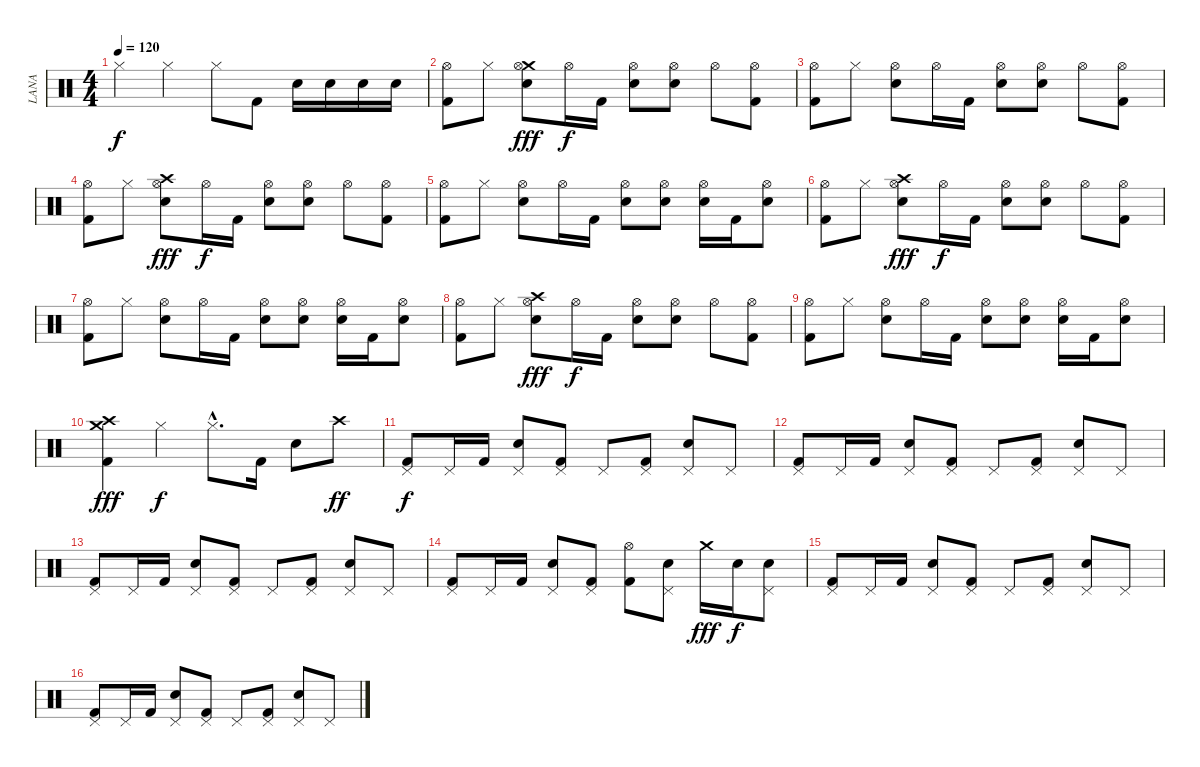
\track ("LANA" "LANA") {instrument percussion}
\staff {score}
\articulation defaults
\ts (4 4)
\tempo 120
\clef neutral
\ks c "Hi-Hat (closed)".4{dy f} "Hi-Hat (closed)".4 "Hi-Hat (closed)".8 "Kick (hit) 2".8 "Electric Snare (hit)".16 "Electric Snare (hit)".16 "Electric Snare (hit)".16 "Electric Snare (hit)".16
|
("Hi-Hat (open)" "Kick (hit) 2").8 "Hi-Hat (closed)".8 ("Crash medium (hit)" "Hi-Hat (open)" "Electric Snare (hit)").8{dy fff} "Hi-Hat (open)".16{dy f} "Kick (hit) 2".16 ("Hi-Hat (open)" "Electric Snare (hit)").8 ("Hi-Hat (open)" "Electric Snare (hit)").8 "Hi-Hat (open)".8 ("Hi-Hat (open)" "Kick (hit) 2").8 |
("Hi-Hat (open)" "Kick (hit) 2").8 "Hi-Hat (closed)".8 ("Hi-Hat (open)" "Electric Snare (hit)").8 "Hi-Hat (open)".16 "Kick (hit) 2".16 ("Hi-Hat (open)" "Electric Snare (hit)").8 ("Hi-Hat (open)" "Electric Snare (hit)").8 "Hi-Hat (open)".8 ("Hi-Hat (open)" "Kick (hit) 2").8 |
("Hi-Hat (open)" "Kick (hit) 2").8 "Hi-Hat (closed)".8 ("Crash high (hit)" "Hi-Hat (open)" "Electric Snare (hit)").8{dy fff} "Hi-Hat (open)".16{dy f} "Kick (hit) 2".16 ("Hi-Hat (open)" "Electric Snare (hit)").8 ("Hi-Hat (open)" "Electric Snare (hit)").8 "Hi-Hat (open)".8 ("Hi-Hat (open)" "Kick (hit) 2").8 |
("Hi-Hat (open)" "Kick (hit) 2").8 "Hi-Hat (closed)".8 ("Hi-Hat (open)" "Electric Snare (hit)").8 "Hi-Hat (open)".16 "Kick (hit) 2".16 ("Hi-Hat (open)" "Electric Snare (hit)").8 ("Hi-Hat (open)" "Electric Snare (hit)").8 ("Hi-Hat (open)" "Electric Snare (hit)").16 "Kick (hit) 2".16 ("Hi-Hat (open)" "Electric Snare (hit)").8 |
("Hi-Hat (open)" "Kick (hit) 2").8 "Hi-Hat (closed)".8 ("Crash high (hit)" "Hi-Hat (open)" "Electric Snare (hit)").8{dy fff} "Hi-Hat (open)".16{dy f} "Kick (hit) 2".16 ("Hi-Hat (open)" "Electric Snare (hit)").8 ("Hi-Hat (open)" "Electric Snare (hit)").8 "Hi-Hat (open)".8 ("Hi-Hat (open)" "Kick (hit) 2").8 |
("Hi-Hat (open)" "Kick (hit) 2").8 "Hi-Hat (closed)".8 ("Hi-Hat (open)" "Electric Snare (hit)").8 "Hi-Hat (open)".16 "Kick (hit) 2".16 ("Hi-Hat (open)" "Electric Snare (hit)").8 ("Hi-Hat (open)" "Electric Snare (hit)").8 ("Hi-Hat (open)" "Electric Snare (hit)").16 "Kick (hit) 2".16 ("Hi-Hat (open)" "Electric Snare (hit)").8 |
("Hi-Hat (open)" "Kick (hit) 2").8 "Hi-Hat (closed)".8 ("Crash high (hit)" "Hi-Hat (open)" "Electric Snare (hit)").8{dy fff} "Hi-Hat (open)".16{dy f} "Kick (hit) 2".16 ("Hi-Hat (open)" "Electric Snare (hit)").8 ("Hi-Hat (open)" "Electric Snare (hit)").8 "Hi-Hat (open)".8 ("Hi-Hat (open)" "Kick (hit) 2").8 |
("Hi-Hat (open)" "Kick (hit) 2").8 "Hi-Hat (closed)".8 ("Hi-Hat (open)" "Electric Snare (hit)").8 "Hi-Hat (open)".16 "Kick (hit) 2".16 ("Hi-Hat (open)" "Electric Snare (hit)").8 ("Hi-Hat (open)" "Electric Snare (hit)").8 ("Hi-Hat (open)" "Electric Snare (hit)").16 "Kick (hit) 2".16 ("Hi-Hat (open)" "Electric Snare (hit)").8 |
("Crash medium (hit)" "Crash high (hit)" "Kick (hit) 2").4{dy fff} "Hi-Hat (closed)".4{dy f} "Hi-Hat (closed)"{hac}.8{d} "Kick (hit) 2".16 "Electric Snare (hit)".8 "Crash high (hit)".8{dy ff} |
("Pedal Hi-Hat (hit)" "Kick (hit) 2").8{dy f} "Pedal Hi-Hat (hit)".16 "Kick (hit) 2".16 ("Pedal Hi-Hat (hit)" "Electric Snare (hit)").8 ("Pedal Hi-Hat (hit)" "Kick (hit) 2").8 "Pedal Hi-Hat (hit)".8 ("Pedal Hi-Hat (hit)" "Kick (hit) 2").8 ("Pedal Hi-Hat (hit)" "Electric Snare (hit)").8 "Pedal Hi-Hat (hit)".8 |
("Pedal Hi-Hat (hit)" "Kick (hit) 2").8 "Pedal Hi-Hat (hit)".16 "Kick (hit) 2".16 ("Pedal Hi-Hat (hit)" "Electric Snare (hit)").8 ("Pedal Hi-Hat (hit)" "Kick (hit) 2").8 "Pedal Hi-Hat (hit)".8 ("Pedal Hi-Hat (hit)" "Kick (hit) 2").8 ("Pedal Hi-Hat (hit)" "Electric Snare (hit)").8 "Pedal Hi-Hat (hit)".8 |
("Pedal Hi-Hat (hit)" "Kick (hit) 2").8 "Pedal Hi-Hat (hit)".16 "Kick (hit) 2".16 ("Pedal Hi-Hat (hit)" "Electric Snare (hit)").8 ("Pedal Hi-Hat (hit)" "Kick (hit) 2").8 "Pedal Hi-Hat (hit)".8 ("Pedal Hi-Hat (hit)" "Kick (hit) 2").8 ("Pedal Hi-Hat (hit)" "Electric Snare (hit)").8 "Pedal Hi-Hat (hit)".8 |
("Pedal Hi-Hat (hit)" "Kick (hit) 2").8 "Pedal Hi-Hat (hit)".16 "Kick (hit) 2".16 ("Pedal Hi-Hat (hit)" "Electric Snare (hit)").8 ("Pedal Hi-Hat (hit)" "Kick (hit) 2").8 ("Hi-Hat (open)" "Kick (hit) 2").8 ("Pedal Hi-Hat (hit)" "Electric Snare (hit)").8 "Crash medium (hit)".16{dy fff} "Electric Snare (hit)".16{dy f} ("Pedal Hi-Hat (hit)" "Electric Snare (hit)").8 |
("Pedal Hi-Hat (hit)" "Kick (hit) 2").8 "Pedal Hi-Hat (hit)".16 "Kick (hit) 2".16 ("Pedal Hi-Hat (hit)" "Electric Snare (hit)").8 ("Pedal Hi-Hat (hit)" "Kick (hit) 2").8 "Pedal Hi-Hat (hit)".8 ("Pedal Hi-Hat (hit)" "Kick (hit) 2").8 ("Pedal Hi-Hat (hit)" "Electric Snare (hit)").8 "Pedal Hi-Hat (hit)".8 |
("Pedal Hi-Hat (hit)" "Kick (hit) 2").8 "Pedal Hi-Hat (hit)".16 "Kick (hit) 2".16 ("Pedal Hi-Hat (hit)" "Electric Snare (hit)").8 ("Pedal Hi-Hat (hit)" "Kick (hit) 2").8 "Pedal Hi-Hat (hit)".8 ("Pedal Hi-Hat (hit)" "Kick (hit) 2").8 ("Pedal Hi-Hat (hit)" "Electric Snare (hit)").8 "Pedal Hi-Hat (hit)".8
